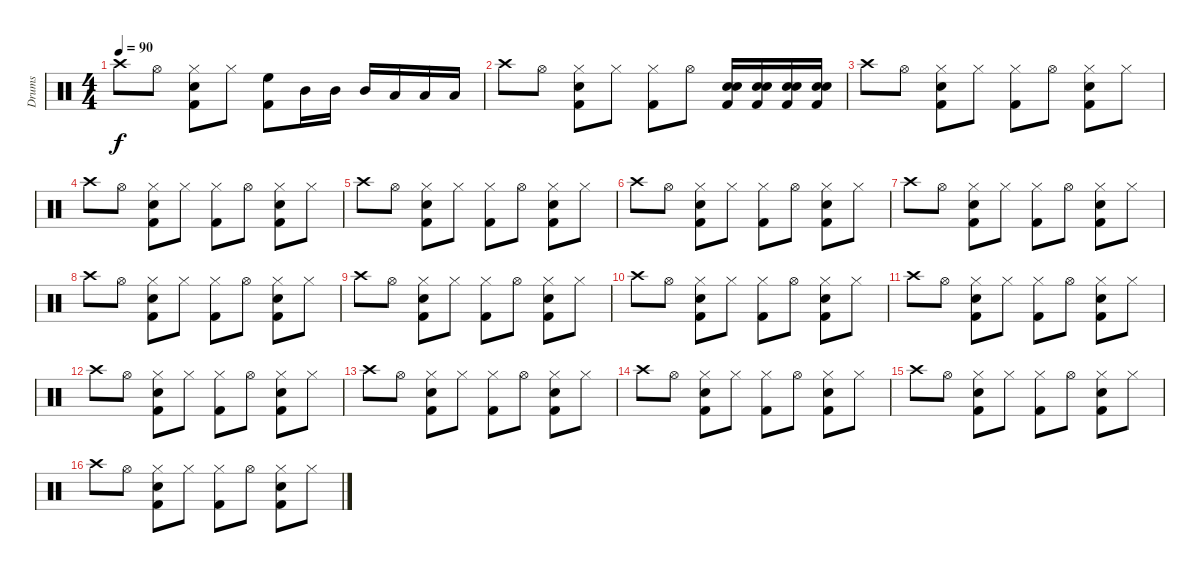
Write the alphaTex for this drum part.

\track ("Drums" "Drums") {instrument percussion}
\staff {score}
\articulation defaults
\ts (4 4)
\tempo 90
\clef neutral
\ks c "Crash high (hit)".8{dy f} "Hi-Hat (open)".8
("Kick (hit) 2" "Snare (hit) 2" "Hi-Hat (closed)").8 "Hi-Hat (closed)".8 ("Kick (hit) 2" "High Floor Tom (hit)").8 "Mid Tom (hit)".16 "Mid Tom (hit)".16 "Mid Tom (hit)".16 "Low Tom (hit)".16 "Low Tom (hit)".16 "Low Tom (hit)".16 |
"Crash high (hit)".8 "Hi-Hat (open)".8 ("Kick (hit) 2" "Snare (hit) 2" "Hi-Hat (closed)").8 "Hi-Hat (closed)".8 ("Kick (hit) 2" "Hi-Hat (closed)").8 "Hi-Hat (open)".8 ("Snare (hit) 2" "Kick (hit) 2" "Snare (hit) 2").16 ("Snare (hit) 2" "Kick (hit) 2" "Snare (hit) 2").16 ("Snare (hit) 2" "Kick (hit) 2" "Snare (hit) 2").16 ("Snare (hit) 2" "Kick (hit) 2" "Snare (hit) 2").16 |
"Crash high (hit)".8 "Hi-Hat (open)".8 ("Kick (hit) 2" "Snare (hit) 2" "Hi-Hat (closed)").8 "Hi-Hat (closed)".8 ("Kick (hit) 2" "Hi-Hat (closed)").8 "Hi-Hat (open)".8 ("Kick (hit) 2" "Snare (hit) 2" "Hi-Hat (closed)").8 "Hi-Hat (closed)".8 |
"Crash high (hit)".8 "Hi-Hat (open)".8 ("Kick (hit) 2" "Snare (hit) 2" "Hi-Hat (closed)").8 "Hi-Hat (closed)".8 ("Kick (hit) 2" "Hi-Hat (closed)").8 "Hi-Hat (open)".8 ("Kick (hit) 2" "Snare (hit) 2" "Hi-Hat (closed)").8 "Hi-Hat (closed)".8 |
"Crash high (hit)".8 "Hi-Hat (open)".8 ("Kick (hit) 2" "Snare (hit) 2" "Hi-Hat (closed)").8 "Hi-Hat (closed)".8 ("Kick (hit) 2" "Hi-Hat (closed)").8 "Hi-Hat (open)".8 ("Kick (hit) 2" "Snare (hit) 2" "Hi-Hat (closed)").8 "Hi-Hat (closed)".8 |
"Crash high (hit)".8 "Hi-Hat (open)".8 ("Kick (hit) 2" "Snare (hit) 2" "Hi-Hat (closed)").8 "Hi-Hat (closed)".8 ("Kick (hit) 2" "Hi-Hat (closed)").8 "Hi-Hat (open)".8 ("Kick (hit) 2" "Snare (hit) 2" "Hi-Hat (closed)").8 "Hi-Hat (closed)".8 |
"Crash high (hit)".8 "Hi-Hat (open)".8 ("Kick (hit) 2" "Snare (hit) 2" "Hi-Hat (closed)").8 "Hi-Hat (closed)".8 ("Kick (hit) 2" "Hi-Hat (closed)").8 "Hi-Hat (open)".8 ("Kick (hit) 2" "Snare (hit) 2" "Hi-Hat (closed)").8 "Hi-Hat (closed)".8 |
"Crash high (hit)".8 "Hi-Hat (open)".8 ("Kick (hit) 2" "Snare (hit) 2" "Hi-Hat (closed)").8 "Hi-Hat (closed)".8 ("Kick (hit) 2" "Hi-Hat (closed)").8 "Hi-Hat (open)".8 ("Kick (hit) 2" "Snare (hit) 2" "Hi-Hat (closed)").8 "Hi-Hat (closed)".8 |
"Crash high (hit)".8 "Hi-Hat (open)".8 ("Kick (hit) 2" "Snare (hit) 2" "Hi-Hat (closed)").8 "Hi-Hat (closed)".8 ("Kick (hit) 2" "Hi-Hat (closed)").8 "Hi-Hat (open)".8 ("Kick (hit) 2" "Snare (hit) 2" "Hi-Hat (closed)").8 "Hi-Hat (closed)".8 |
"Crash high (hit)".8 "Hi-Hat (open)".8 ("Kick (hit) 2" "Snare (hit) 2" "Hi-Hat (closed)").8 "Hi-Hat (closed)".8 ("Kick (hit) 2" "Hi-Hat (closed)").8 "Hi-Hat (open)".8 ("Kick (hit) 2" "Snare (hit) 2" "Hi-Hat (closed)").8 "Hi-Hat (closed)".8 |
"Crash high (hit)".8 "Hi-Hat (open)".8 ("Kick (hit) 2" "Snare (hit) 2" "Hi-Hat (closed)").8 "Hi-Hat (closed)".8 ("Kick (hit) 2" "Hi-Hat (closed)").8 "Hi-Hat (open)".8 ("Kick (hit) 2" "Snare (hit) 2" "Hi-Hat (closed)").8 "Hi-Hat (closed)".8 |
"Crash high (hit)".8 "Hi-Hat (open)".8 ("Kick (hit) 2" "Snare (hit) 2" "Hi-Hat (closed)").8 "Hi-Hat (closed)".8 ("Kick (hit) 2" "Hi-Hat (closed)").8 "Hi-Hat (open)".8 ("Kick (hit) 2" "Snare (hit) 2" "Hi-Hat (closed)").8 "Hi-Hat (closed)".8 |
"Crash high (hit)".8 "Hi-Hat (open)".8 ("Kick (hit) 2" "Snare (hit) 2" "Hi-Hat (closed)").8 "Hi-Hat (closed)".8 ("Kick (hit) 2" "Hi-Hat (closed)").8 "Hi-Hat (open)".8 ("Kick (hit) 2" "Snare (hit) 2" "Hi-Hat (closed)").8 "Hi-Hat (closed)".8 |
"Crash high (hit)".8 "Hi-Hat (open)".8 ("Kick (hit) 2" "Snare (hit) 2" "Hi-Hat (closed)").8 "Hi-Hat (closed)".8 ("Kick (hit) 2" "Hi-Hat (closed)").8 "Hi-Hat (open)".8 ("Kick (hit) 2" "Snare (hit) 2" "Hi-Hat (closed)").8 "Hi-Hat (closed)".8 |
"Crash high (hit)".8 "Hi-Hat (open)".8 ("Kick (hit) 2" "Snare (hit) 2" "Hi-Hat (closed)").8 "Hi-Hat (closed)".8 ("Kick (hit) 2" "Hi-Hat (closed)").8 "Hi-Hat (open)".8 ("Kick (hit) 2" "Snare (hit) 2" "Hi-Hat (closed)").8 "Hi-Hat (closed)".8 |
"Crash high (hit)".8 "Hi-Hat (open)".8 ("Kick (hit) 2" "Snare (hit) 2" "Hi-Hat (closed)").8 "Hi-Hat (closed)".8 ("Kick (hit) 2" "Hi-Hat (closed)").8 "Hi-Hat (open)".8 ("Kick (hit) 2" "Snare (hit) 2" "Hi-Hat (closed)").8 "Hi-Hat (closed)".8
